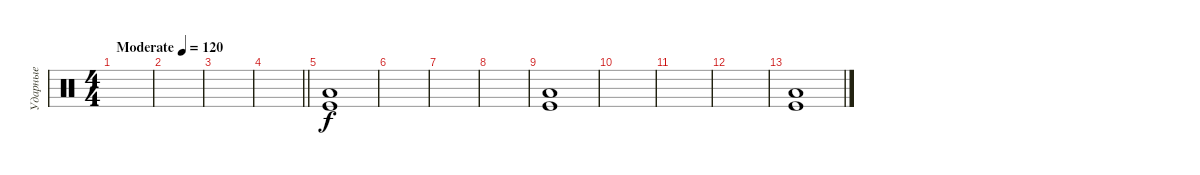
\track ("Ударные" "Ударные") {instrument percussion}
\staff {score}
\articulation defaults
\ts (4 4)
\tempo (120 "Moderate")
\tempo 115
\tempo (120 "Moderate")
\clef neutral
\ks c
|
|
|
\barLineRight lightlight
|
("Low Tom (hit)" "Kick (hit)").1 |
|
|
|
("Low Tom (hit)" "Kick (hit)").1 |
|
|
|
("Low Tom (hit)" "Kick (hit)").1
